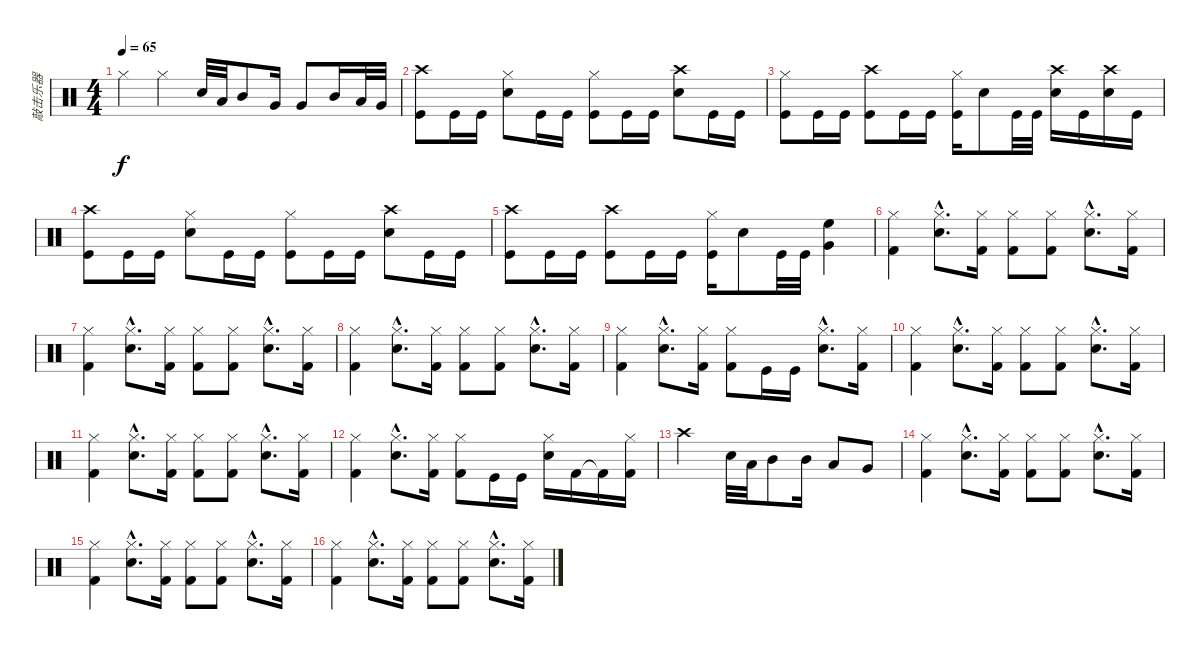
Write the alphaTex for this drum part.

\track ("敲击乐器" "敲击乐器") {instrument percussion}
\staff {score}
\articulation defaults
\ts (4 4)
\tempo 65
\clef neutral
\ks c "Hi-Hat (closed)".4{dy f} "Hi-Hat (closed)".4 "Snare (hit) 2".32 "Low Tom (hit)".32 "Mid Tom (hit)".8 "Very Low Tom (hit)".16 "Very Low Tom (hit)".8 "Mid Tom (hit)".16 "Low Tom (hit)".32 "Very Low Tom (hit)".32
|
("Crash high (hit)" "Kick (hit)").8 "Kick (hit)".16 "Kick (hit)".16 ("Hi-Hat (closed)" "Snare (hit) 2").8 "Kick (hit)".16 "Kick (hit)".16 ("Hi-Hat (closed)" "Kick (hit)").8 "Kick (hit)".16 "Kick (hit)".16 ("Crash high (hit)" "Snare (hit) 2").8 "Kick (hit)".16 "Kick (hit)".16 |
("Hi-Hat (closed)" "Kick (hit)").8 "Kick (hit)".16 "Kick (hit)".16 ("Crash high (hit)" "Kick (hit)").8 "Kick (hit)".16 "Kick (hit)".16 ("Hi-Hat (closed)" "Kick (hit)").16 "Snare (hit) 2".8 "Kick (hit)".32 "Kick (hit)".32 ("Crash high (hit)" "Snare (hit) 2").16 "Kick (hit)".16 ("Crash high (hit)" "Snare (hit) 2").16 "Kick (hit)".16 |
("Crash high (hit)" "Kick (hit)").8 "Kick (hit)".16 "Kick (hit)".16 ("Hi-Hat (closed)" "Snare (hit) 2").8 "Kick (hit)".16 "Kick (hit)".16 ("Hi-Hat (closed)" "Kick (hit)").8 "Kick (hit)".16 "Kick (hit)".16 ("Crash high (hit)" "Snare (hit) 2").8 "Kick (hit)".16 "Kick (hit)".16 |
("Crash high (hit)" "Kick (hit)").8 "Kick (hit)".16 "Kick (hit)".16 ("Crash high (hit)" "Kick (hit)").8 "Kick (hit)".16 "Kick (hit)".16 ("Hi-Hat (closed)" "Kick (hit)").16 "Snare (hit) 2".8 "Kick (hit)".32 "Kick (hit)".32 ("Very Low Tom (hit)" "High Floor Tom (hit)").4 |
("Hi-Hat (closed)" "Kick (hit) 2").4 ("Hi-Hat (closed)"{hac} "Snare (hit) 2"{hac}).8{d} ("Hi-Hat (closed)" "Kick (hit) 2").16 ("Hi-Hat (closed)" "Kick (hit) 2").8 ("Hi-Hat (closed)" "Kick (hit) 2").8 ("Hi-Hat (closed)"{hac} "Snare (hit) 2"{hac}).8{d} ("Hi-Hat (closed)" "Kick (hit) 2").16 |
("Hi-Hat (closed)" "Kick (hit) 2").4 ("Hi-Hat (closed)"{hac} "Snare (hit) 2"{hac}).8{d} ("Hi-Hat (closed)" "Kick (hit) 2").16 ("Hi-Hat (closed)" "Kick (hit) 2").8 ("Hi-Hat (closed)" "Kick (hit) 2").8 ("Hi-Hat (closed)"{hac} "Snare (hit) 2"{hac}).8{d} ("Hi-Hat (closed)" "Kick (hit) 2").16 |
("Hi-Hat (closed)" "Kick (hit) 2").4 ("Hi-Hat (closed)"{hac} "Snare (hit) 2"{hac}).8{d} ("Hi-Hat (closed)" "Kick (hit) 2").16 ("Hi-Hat (closed)" "Kick (hit) 2").8 ("Hi-Hat (closed)" "Kick (hit) 2").8 ("Hi-Hat (closed)"{hac} "Snare (hit) 2"{hac}).8{d} ("Hi-Hat (closed)" "Kick (hit) 2").16 |
("Hi-Hat (closed)" "Kick (hit) 2").4 ("Hi-Hat (closed)"{hac} "Snare (hit) 2"{hac}).8{d} ("Hi-Hat (closed)" "Kick (hit) 2").16 ("Hi-Hat (closed)" "Kick (hit) 2").8 "Kick (hit)".16 "Kick (hit)".16 ("Hi-Hat (closed)"{hac} "Snare (hit) 2"{hac}).8{d} ("Hi-Hat (closed)" "Kick (hit) 2").16 |
("Hi-Hat (closed)" "Kick (hit) 2").4 ("Hi-Hat (closed)"{hac} "Snare (hit) 2"{hac}).8{d} ("Hi-Hat (closed)" "Kick (hit) 2").16 ("Hi-Hat (closed)" "Kick (hit) 2").8 ("Hi-Hat (closed)" "Kick (hit) 2").8 ("Hi-Hat (closed)"{hac} "Snare (hit) 2"{hac}).8{d} ("Hi-Hat (closed)" "Kick (hit) 2").16 |
("Hi-Hat (closed)" "Kick (hit) 2").4 ("Hi-Hat (closed)"{hac} "Snare (hit) 2"{hac}).8{d} ("Hi-Hat (closed)" "Kick (hit) 2").16 ("Hi-Hat (closed)" "Kick (hit) 2").8 ("Hi-Hat (closed)" "Kick (hit) 2").8 ("Hi-Hat (closed)"{hac} "Snare (hit) 2"{hac}).8{d} ("Hi-Hat (closed)" "Kick (hit) 2").16 |
("Hi-Hat (closed)" "Kick (hit) 2").4 ("Hi-Hat (closed)"{hac} "Snare (hit) 2"{hac}).8{d} ("Hi-Hat (closed)" "Kick (hit) 2").16 ("Hi-Hat (closed)" "Kick (hit) 2").8 "Kick (hit)".16 "Kick (hit)".16 ("Hi-Hat (closed)" "Snare (hit) 2").16 "Kick (hit) 2".16 "Kick (hit) 2"{t}.16 ("Hi-Hat (closed)" "Kick (hit) 2").16 |
"Crash high (hit)".2 "Snare (hit) 2".32 "Low Tom (hit)".32 "Mid Tom (hit)".8 "Mid Tom (hit)".16 "Low Tom (hit)".8 "Very Low Tom (hit)".8 |
("Hi-Hat (closed)" "Kick (hit) 2").4 ("Hi-Hat (closed)"{hac} "Snare (hit) 2"{hac}).8{d} ("Hi-Hat (closed)" "Kick (hit) 2").16 ("Hi-Hat (closed)" "Kick (hit) 2").8 ("Hi-Hat (closed)" "Kick (hit) 2").8 ("Hi-Hat (closed)"{hac} "Snare (hit) 2"{hac}).8{d} ("Hi-Hat (closed)" "Kick (hit) 2").16 |
("Hi-Hat (closed)" "Kick (hit) 2").4 ("Hi-Hat (closed)"{hac} "Snare (hit) 2"{hac}).8{d} ("Hi-Hat (closed)" "Kick (hit) 2").16 ("Hi-Hat (closed)" "Kick (hit) 2").8 ("Hi-Hat (closed)" "Kick (hit) 2").8 ("Hi-Hat (closed)"{hac} "Snare (hit) 2"{hac}).8{d} ("Hi-Hat (closed)" "Kick (hit) 2").16 |
("Hi-Hat (closed)" "Kick (hit) 2").4 ("Hi-Hat (closed)"{hac} "Snare (hit) 2"{hac}).8{d} ("Hi-Hat (closed)" "Kick (hit) 2").16 ("Hi-Hat (closed)" "Kick (hit) 2").8 ("Hi-Hat (closed)" "Kick (hit) 2").8 ("Hi-Hat (closed)"{hac} "Snare (hit) 2"{hac}).8{d} ("Hi-Hat (closed)" "Kick (hit) 2").16
